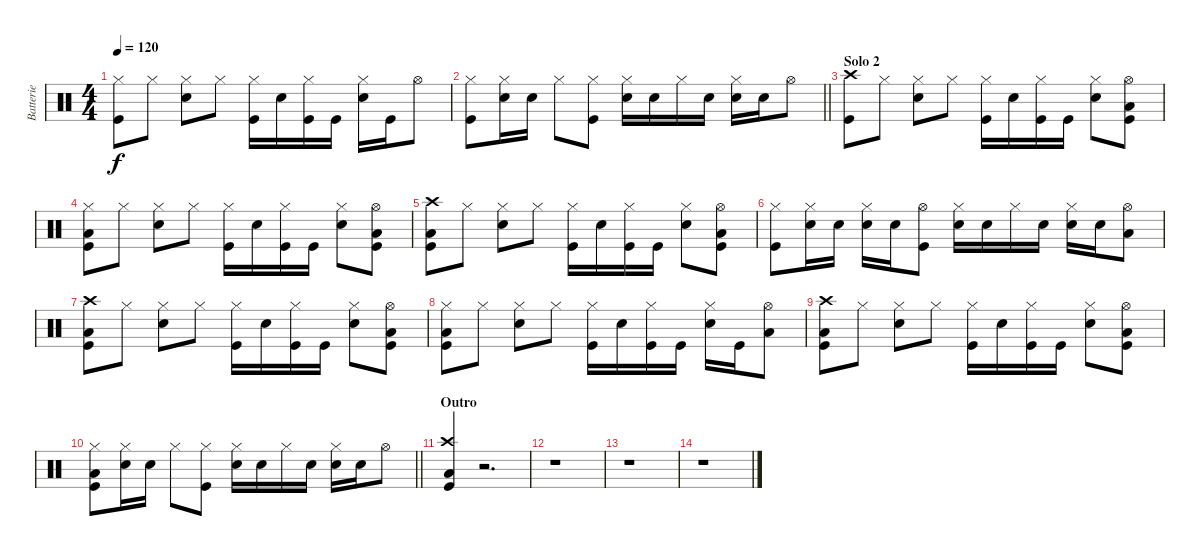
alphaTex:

\track ("Batterie" "Batterie") {instrument percussion}
\staff {score}
\articulation defaults
\ts (4 4)
\tempo 120
\clef neutral
\ks c
("Hi-Hat (closed)" "Kick (hit)").8{dy f} "Hi-Hat (closed)".8 ("Hi-Hat (closed)" "Snare (hit) 2").8 "Hi-Hat (closed)".8 ("Hi-Hat (closed)" "Kick (hit)").16 "Snare (hit) 2".16 ("Hi-Hat (closed)" "Kick (hit)").16 "Kick (hit)".16 ("Hi-Hat (closed)" "Snare (hit) 2").16 "Kick (hit)".16 "Hi-Hat (open)".8 |
\barLineRight lightlight
("Hi-Hat (closed)" "Kick (hit)").8 ("Hi-Hat (closed)" "Snare (hit) 2").16 "Snare (hit) 2".16 "Hi-Hat (closed)".8 ("Hi-Hat (closed)" "Kick (hit)").8 ("Hi-Hat (closed)" "Snare (hit) 2").16 "Snare (hit) 2".16 "Hi-Hat (closed)".16 "Snare (hit) 2".16 ("Hi-Hat (closed)" "Snare (hit) 2").16 "Snare (hit) 2".16 "Hi-Hat (open)".8 |
\section ("" "Solo 2")
("Crash high (hit)" "Kick (hit)").8 "Hi-Hat (closed)".8 ("Hi-Hat (closed)" "Snare (hit) 2").8 "Hi-Hat (closed)".8 ("Hi-Hat (closed)" "Kick (hit)").16 "Snare (hit) 2".16 ("Hi-Hat (closed)" "Kick (hit)").16 "Kick (hit)".16 ("Hi-Hat (closed)" "Snare (hit) 2").8 ("Hi-Hat (open)" "Low Floor Tom (hit)" "Kick (hit)").8 |
("Hi-Hat (closed)" "Low Floor Tom (hit)" "Kick (hit)").8 "Hi-Hat (closed)".8 ("Hi-Hat (closed)" "Snare (hit) 2").8 "Hi-Hat (closed)".8 ("Hi-Hat (closed)" "Kick (hit)").16 "Snare (hit) 2".16 ("Hi-Hat (closed)" "Kick (hit)").16 "Kick (hit)".16 ("Hi-Hat (closed)" "Snare (hit) 2").8 ("Hi-Hat (open)" "Low Floor Tom (hit)" "Kick (hit)").8 |
("Crash high (hit)" "Low Floor Tom (hit)" "Kick (hit)").8 "Hi-Hat (closed)".8 ("Hi-Hat (closed)" "Snare (hit) 2").8 "Hi-Hat (closed)".8 ("Hi-Hat (closed)" "Kick (hit)").16 "Snare (hit) 2".16 ("Hi-Hat (closed)" "Kick (hit)").16 "Kick (hit)".16 ("Hi-Hat (closed)" "Snare (hit) 2").8 ("Hi-Hat (open)" "Low Floor Tom (hit)" "Kick (hit)").8 |
("Hi-Hat (closed)" "Kick (hit)").8 ("Hi-Hat (closed)" "Snare (hit) 2").16 "Snare (hit) 2".16 ("Hi-Hat (closed)" "Snare (hit) 2").16 "Snare (hit) 2".16 ("Hi-Hat (open)" "Kick (hit)").8 ("Hi-Hat (closed)" "Snare (hit) 2").16 "Snare (hit) 2".16 "Hi-Hat (closed)".16 "Snare (hit) 2".16 ("Hi-Hat (closed)" "Snare (hit) 2").16 "Snare (hit) 2".16 ("Hi-Hat (open)" "Low Floor Tom (hit)").8 |
("Crash high (hit)" "Low Floor Tom (hit)" "Kick (hit)").8 "Hi-Hat (closed)".8 ("Hi-Hat (closed)" "Snare (hit) 2").8 "Hi-Hat (closed)".8 ("Hi-Hat (closed)" "Kick (hit)").16 "Snare (hit) 2".16 ("Hi-Hat (closed)" "Kick (hit)").16 "Kick (hit)".16 ("Hi-Hat (closed)" "Snare (hit) 2").8 ("Hi-Hat (open)" "Low Floor Tom (hit)" "Kick (hit)").8 |
("Hi-Hat (closed)" "Low Floor Tom (hit)" "Kick (hit)").8 "Hi-Hat (closed)".8 ("Hi-Hat (closed)" "Snare (hit) 2").8 "Hi-Hat (closed)".8 ("Hi-Hat (closed)" "Kick (hit)").16 "Snare (hit) 2".16 ("Hi-Hat (closed)" "Kick (hit)").16 "Kick (hit)".16 ("Hi-Hat (closed)" "Snare (hit) 2").16 "Kick (hit)".16 ("Hi-Hat (open)" "Low Floor Tom (hit)").8 |
("Crash high (hit)" "Low Floor Tom (hit)" "Kick (hit)").8 "Hi-Hat (closed)".8 ("Hi-Hat (closed)" "Snare (hit) 2").8 "Hi-Hat (closed)".8 ("Hi-Hat (closed)" "Kick (hit)").16 "Snare (hit) 2".16 ("Hi-Hat (closed)" "Kick (hit)").16 "Kick (hit)".16 ("Hi-Hat (closed)" "Snare (hit) 2").8 ("Hi-Hat (open)" "Low Floor Tom (hit)" "Kick (hit)").8 |
\barLineRight lightlight
("Hi-Hat (closed)" "Low Floor Tom (hit)" "Kick (hit)").8 ("Hi-Hat (closed)" "Snare (hit) 2").16 "Snare (hit) 2".16 "Hi-Hat (closed)".8 ("Hi-Hat (closed)" "Kick (hit)").8 ("Hi-Hat (closed)" "Snare (hit) 2").16 "Snare (hit) 2".16 "Hi-Hat (closed)".16 "Snare (hit) 2".16 ("Hi-Hat (closed)" "Snare (hit) 2").16 "Snare (hit) 2".16 "Hi-Hat (open)".8 |
\section ("" "Outro")
("Crash high (hit)" "Low Floor Tom (hit)" "Kick (hit)").4 r.2{d} |
r.1 |
r.1 |
r.1
